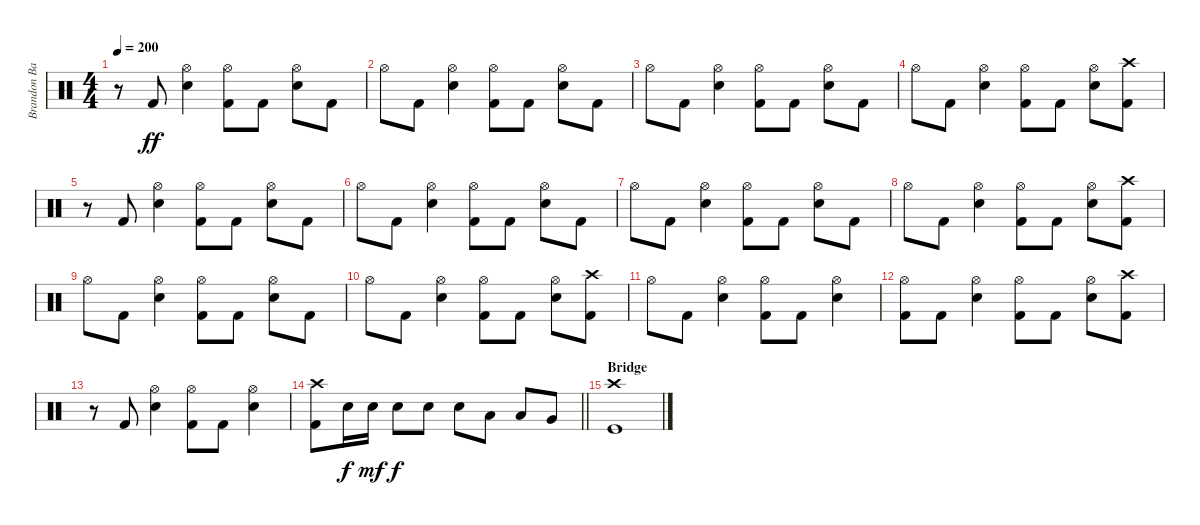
\track ("Brandon Barnes - Drums" "Brandon Ba") {instrument percussion}
\staff {score}
\articulation defaults
\ts (4 4)
\tempo 200
\clef neutral
\ks c
r.8{dy ff} "Kick (hit) 2".8 ("Snare (hit) 2" "Hi-Hat (open)").4 ("Kick (hit) 2" "Hi-Hat (open)").8 "Kick (hit) 2".8 ("Snare (hit) 2" "Hi-Hat (open)").8 "Kick (hit) 2".8 |
"Hi-Hat (open)".8 "Kick (hit) 2".8 ("Snare (hit) 2" "Hi-Hat (open)").4 ("Kick (hit) 2" "Hi-Hat (open)").8 "Kick (hit) 2".8 ("Snare (hit) 2" "Hi-Hat (open)").8 "Kick (hit) 2".8 |
"Hi-Hat (open)".8 "Kick (hit) 2".8 ("Snare (hit) 2" "Hi-Hat (open)").4 ("Kick (hit) 2" "Hi-Hat (open)").8 "Kick (hit) 2".8 ("Snare (hit) 2" "Hi-Hat (open)").8 "Kick (hit) 2".8 |
"Hi-Hat (open)".8 "Kick (hit) 2".8 ("Snare (hit) 2" "Hi-Hat (open)").4 ("Kick (hit) 2" "Hi-Hat (open)").8 "Kick (hit) 2".8 ("Snare (hit) 2" "Hi-Hat (open)").8 ("Kick (hit) 2" "Crash high (hit)").8 |
r.8 "Kick (hit) 2".8 ("Snare (hit) 2" "Hi-Hat (open)").4 ("Kick (hit) 2" "Hi-Hat (open)").8 "Kick (hit) 2".8 ("Snare (hit) 2" "Hi-Hat (open)").8 "Kick (hit) 2".8 |
"Hi-Hat (open)".8 "Kick (hit) 2".8 ("Snare (hit) 2" "Hi-Hat (open)").4 ("Kick (hit) 2" "Hi-Hat (open)").8 "Kick (hit) 2".8 ("Snare (hit) 2" "Hi-Hat (open)").8 "Kick (hit) 2".8 |
"Hi-Hat (open)".8 "Kick (hit) 2".8 ("Snare (hit) 2" "Hi-Hat (open)").4 ("Kick (hit) 2" "Hi-Hat (open)").8 "Kick (hit) 2".8 ("Snare (hit) 2" "Hi-Hat (open)").8 "Kick (hit) 2".8 |
"Hi-Hat (open)".8 "Kick (hit) 2".8 ("Snare (hit) 2" "Hi-Hat (open)").4 ("Kick (hit) 2" "Hi-Hat (open)").8 "Kick (hit) 2".8 ("Snare (hit) 2" "Hi-Hat (open)").8 ("Kick (hit) 2" "Crash high (hit)").8 |
"Hi-Hat (open)".8 "Kick (hit) 2".8 ("Snare (hit) 2" "Hi-Hat (open)").4 ("Kick (hit) 2" "Hi-Hat (open)").8 "Kick (hit) 2".8 ("Snare (hit) 2" "Hi-Hat (open)").8 "Kick (hit) 2".8 |
"Hi-Hat (open)".8 "Kick (hit) 2".8 ("Snare (hit) 2" "Hi-Hat (open)").4 ("Kick (hit) 2" "Hi-Hat (open)").8 "Kick (hit) 2".8 ("Snare (hit) 2" "Hi-Hat (open)").8 ("Kick (hit) 2" "Crash high (hit)").8 |
"Hi-Hat (open)".8 "Kick (hit) 2".8 ("Snare (hit) 2" "Hi-Hat (open)").4 ("Kick (hit) 2" "Hi-Hat (open)").8 "Kick (hit) 2".8 ("Snare (hit) 2" "Hi-Hat (open)").4 |
("Kick (hit) 2" "Hi-Hat (open)").8 "Kick (hit) 2".8 ("Snare (hit) 2" "Hi-Hat (open)").4 ("Kick (hit) 2" "Hi-Hat (open)").8 "Kick (hit) 2".8 ("Snare (hit) 2" "Hi-Hat (open)").8 ("Kick (hit) 2" "Crash high (hit)").8 |
r.8 "Kick (hit) 2".8 ("Snare (hit) 2" "Hi-Hat (open)").4 ("Kick (hit) 2" "Hi-Hat (open)").8 "Kick (hit) 2".8 ("Snare (hit) 2" "Hi-Hat (open)").4 |
\barLineRight lightlight
("Kick (hit) 2" "Crash high (hit)").8 "Snare (hit) 2".16{dy f} "Snare (hit) 2".16{dy mf} "Snare (hit) 2".8{dy f} "Snare (hit) 2".8 "Snare (hit) 2".8 "Low Tom (hit)".8 "Low Tom (hit)".8 "Very Low Tom (hit)".8 |
\section ("" "Bridge")
("Crash high (hit)" "Kick (hit)").1
